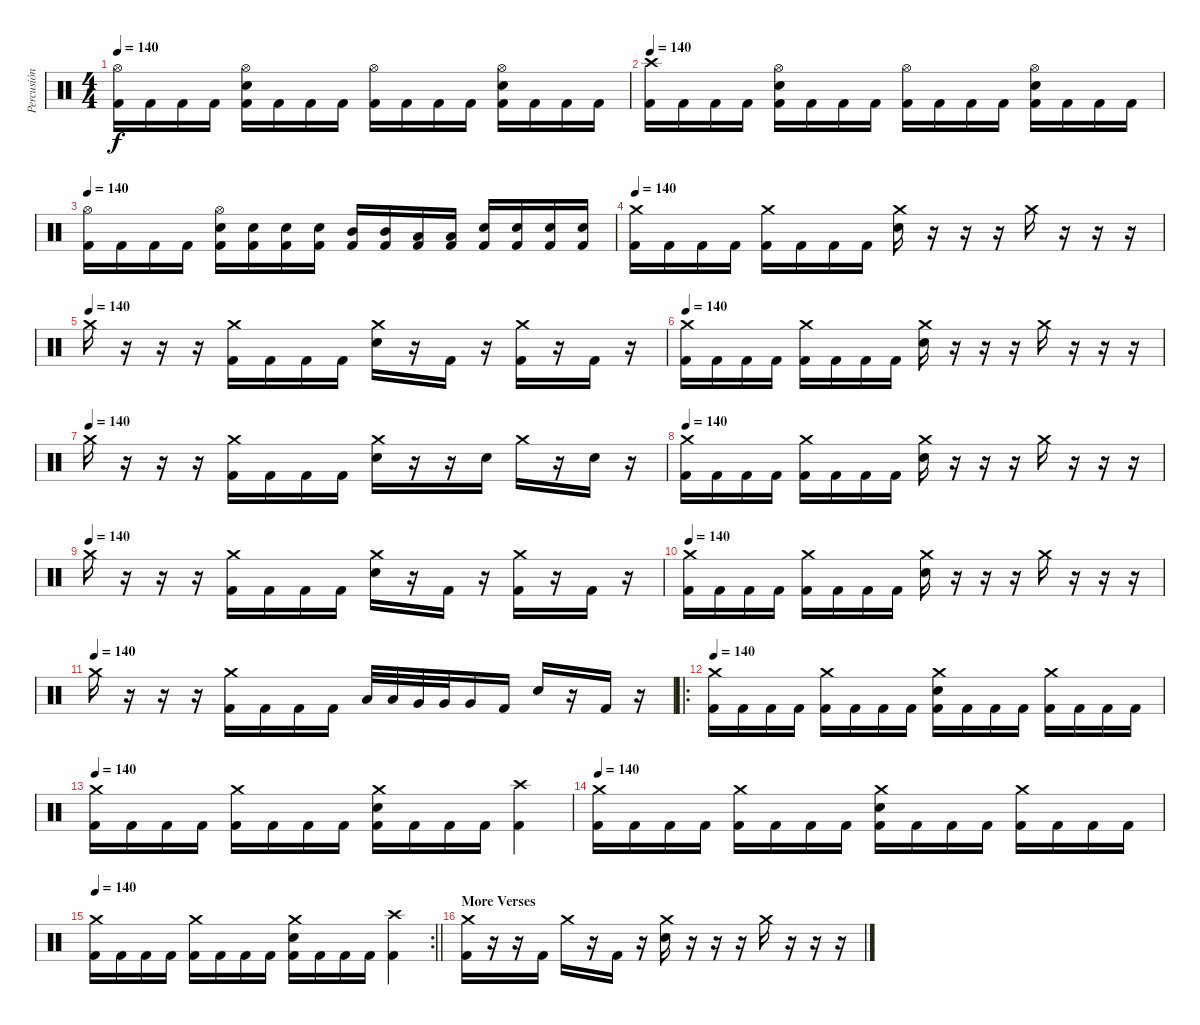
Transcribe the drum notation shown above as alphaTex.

\track ("Percusión" "Percusión") {instrument percussion}
\staff {score}
\articulation defaults
\ts (4 4)
\tempo 140
\clef neutral
\ks c
("Hi-Hat (open)" "Kick (hit) 2").16{dy f} "Kick (hit) 2".16 "Kick (hit) 2".16 "Kick (hit) 2".16 ("Hi-Hat (open)" "Electric Snare (hit)" "Kick (hit) 2").16 "Kick (hit) 2".16 "Kick (hit) 2".16 "Kick (hit) 2".16 ("Hi-Hat (open)" "Kick (hit) 2").16 "Kick (hit) 2".16 "Kick (hit) 2".16 "Kick (hit) 2".16 ("Hi-Hat (open)" "Electric Snare (hit)" "Kick (hit) 2").16 "Kick (hit) 2".16 "Kick (hit) 2".16 "Kick (hit) 2".16 |
\tempo 140
("Crash high (hit)" "Kick (hit) 2").16 "Kick (hit) 2".16 "Kick (hit) 2".16 "Kick (hit) 2".16 ("Hi-Hat (open)" "Electric Snare (hit)" "Kick (hit) 2").16 "Kick (hit) 2".16 "Kick (hit) 2".16 "Kick (hit) 2".16 ("Hi-Hat (open)" "Kick (hit) 2").16 "Kick (hit) 2".16 "Kick (hit) 2".16 "Kick (hit) 2".16 ("Hi-Hat (open)" "Electric Snare (hit)" "Kick (hit) 2").16 "Kick (hit) 2".16 "Kick (hit) 2".16 "Kick (hit) 2".16 |
\tempo 140
("Hi-Hat (open)" "Kick (hit) 2").16 "Kick (hit) 2".16 "Kick (hit) 2".16 "Kick (hit) 2".16 ("Hi-Hat (open)" "Electric Snare (hit)" "Kick (hit) 2").16 ("Electric Snare (hit)" "Kick (hit) 2").16 ("Electric Snare (hit)" "Kick (hit) 2").16 ("Electric Snare (hit)" "Kick (hit) 2").16 ("Mid Tom (hit)" "Kick (hit) 2").16 ("Mid Tom (hit)" "Kick (hit) 2").16 ("Low Tom (hit)" "Kick (hit) 2").16 ("Low Tom (hit)" "Kick (hit) 2").16 ("Electric Snare (hit)" "Kick (hit) 2").16 ("Electric Snare (hit)" "Kick (hit) 2").16 ("Electric Snare (hit)" "Kick (hit) 2").16 ("Electric Snare (hit)" "Kick (hit) 2").16 |
\tempo 140
("Crash medium (hit)" "Kick (hit) 2").16 "Kick (hit) 2".16 "Kick (hit) 2".16 "Kick (hit) 2".16 ("Crash medium (hit)" "Kick (hit) 2").16 "Kick (hit) 2".16 "Kick (hit) 2".16 "Kick (hit) 2".16 ("Crash medium (hit)" "Electric Snare (hit)").16 r.16 r.16 r.16 "Crash medium (hit)".16 r.16 r.16 r.16 |
\tempo (140)
"Crash medium (hit)".16 r.16 r.16 r.16 ("Crash medium (hit)" "Kick (hit) 2").16 "Kick (hit) 2".16 "Kick (hit) 2".16 "Kick (hit) 2".16 ("Crash medium (hit)" "Electric Snare (hit)").16 r.16 "Kick (hit) 2".16 r.16 ("Crash medium (hit)" "Kick (hit) 2").16 r.16 "Kick (hit) 2".16 r.16 |
\tempo 140
("Crash medium (hit)" "Kick (hit) 2").16 "Kick (hit) 2".16 "Kick (hit) 2".16 "Kick (hit) 2".16 ("Crash medium (hit)" "Kick (hit) 2").16 "Kick (hit) 2".16 "Kick (hit) 2".16 "Kick (hit) 2".16 ("Crash medium (hit)" "Electric Snare (hit)").16 r.16 r.16 r.16 "Crash medium (hit)".16 r.16 r.16 r.16 |
\tempo (140)
"Crash medium (hit)".16 r.16 r.16 r.16 ("Crash medium (hit)" "Kick (hit) 2").16 "Kick (hit) 2".16 "Kick (hit) 2".16 "Kick (hit) 2".16 ("Crash medium (hit)" "Electric Snare (hit)").16 r.16 r.16 "Electric Snare (hit)".16 "Crash medium (hit)".16 r.16 "Electric Snare (hit)".16 r.16 |
\tempo 140
("Crash medium (hit)" "Kick (hit) 2").16 "Kick (hit) 2".16 "Kick (hit) 2".16 "Kick (hit) 2".16 ("Crash medium (hit)" "Kick (hit) 2").16 "Kick (hit) 2".16 "Kick (hit) 2".16 "Kick (hit) 2".16 ("Crash medium (hit)" "Electric Snare (hit)").16 r.16 r.16 r.16 "Crash medium (hit)".16 r.16 r.16 r.16 |
\tempo (140)
"Crash medium (hit)".16 r.16 r.16 r.16 ("Crash medium (hit)" "Kick (hit) 2").16 "Kick (hit) 2".16 "Kick (hit) 2".16 "Kick (hit) 2".16 ("Crash medium (hit)" "Electric Snare (hit)").16 r.16 "Kick (hit) 2".16 r.16 ("Crash medium (hit)" "Kick (hit) 2").16 r.16 "Kick (hit) 2".16 r.16 |
\tempo 140
("Crash medium (hit)" "Kick (hit) 2").16 "Kick (hit) 2".16 "Kick (hit) 2".16 "Kick (hit) 2".16 ("Crash medium (hit)" "Kick (hit) 2").16 "Kick (hit) 2".16 "Kick (hit) 2".16 "Kick (hit) 2".16 ("Crash medium (hit)" "Electric Snare (hit)").16 r.16 r.16 r.16 "Crash medium (hit)".16 r.16 r.16 r.16 |
\tempo (140)
"Crash medium (hit)".16 r.16 r.16 r.16 ("Crash medium (hit)" "Kick (hit) 2").16 "Kick (hit) 2".16 "Kick (hit) 2".16 "Kick (hit) 2".16 "Low Tom (hit)".32 "Low Tom (hit)".32 "Very Low Tom (hit)".32 "Very Low Tom (hit)".32 "Very Low Tom (hit)".16 "Kick (hit) 2".16 "Electric Snare (hit)".16 r.16 "Kick (hit) 2".16 r.16 |
\ro
\tempo 140
("Crash medium (hit)" "Kick (hit) 2").16 "Kick (hit) 2".16 "Kick (hit) 2".16 "Kick (hit) 2".16 ("Crash medium (hit)" "Kick (hit) 2").16 "Kick (hit) 2".16 "Kick (hit) 2".16 "Kick (hit) 2".16 ("Crash medium (hit)" "Electric Snare (hit)" "Kick (hit) 2").16 "Kick (hit) 2".16 "Kick (hit) 2".16 "Kick (hit) 2".16 ("Crash medium (hit)" "Kick (hit) 2").16 "Kick (hit) 2".16 "Kick (hit) 2".16 "Kick (hit) 2".16 |
\tempo 140
("Crash medium (hit)" "Kick (hit) 2").16 "Kick (hit) 2".16 "Kick (hit) 2".16 "Kick (hit) 2".16 ("Crash medium (hit)" "Kick (hit) 2").16 "Kick (hit) 2".16 "Kick (hit) 2".16 "Kick (hit) 2".16 ("Crash medium (hit)" "Electric Snare (hit)" "Kick (hit) 2").16 "Kick (hit) 2".16 "Kick (hit) 2".16 "Kick (hit) 2".16 ("Crash high (hit)" "Kick (hit) 2").4 |
\tempo 140
("Crash medium (hit)" "Kick (hit) 2").16 "Kick (hit) 2".16 "Kick (hit) 2".16 "Kick (hit) 2".16 ("Crash medium (hit)" "Kick (hit) 2").16 "Kick (hit) 2".16 "Kick (hit) 2".16 "Kick (hit) 2".16 ("Crash medium (hit)" "Electric Snare (hit)" "Kick (hit) 2").16 "Kick (hit) 2".16 "Kick (hit) 2".16 "Kick (hit) 2".16 ("Crash medium (hit)" "Kick (hit) 2").16 "Kick (hit) 2".16 "Kick (hit) 2".16 "Kick (hit) 2".16 |
\rc 2
\tempo 140
\barLineRight lightlight
("Crash medium (hit)" "Kick (hit) 2").16 "Kick (hit) 2".16 "Kick (hit) 2".16 "Kick (hit) 2".16 ("Crash medium (hit)" "Kick (hit) 2").16 "Kick (hit) 2".16 "Kick (hit) 2".16 "Kick (hit) 2".16 ("Crash medium (hit)" "Electric Snare (hit)" "Kick (hit) 2").16 "Kick (hit) 2".16 "Kick (hit) 2".16 "Kick (hit) 2".16 ("Crash high (hit)" "Kick (hit) 2").4 |
\section ("" "More Verses")
("Crash medium (hit)" "Kick (hit) 2").16 r.16 r.16 "Kick (hit) 2".16 "Crash medium (hit)".16 r.16 "Kick (hit) 2".16 r.16 ("Crash medium (hit)" "Electric Snare (hit)").16 r.16 r.16 r.16 "Crash medium (hit)".16 r.16 r.16 r.16
